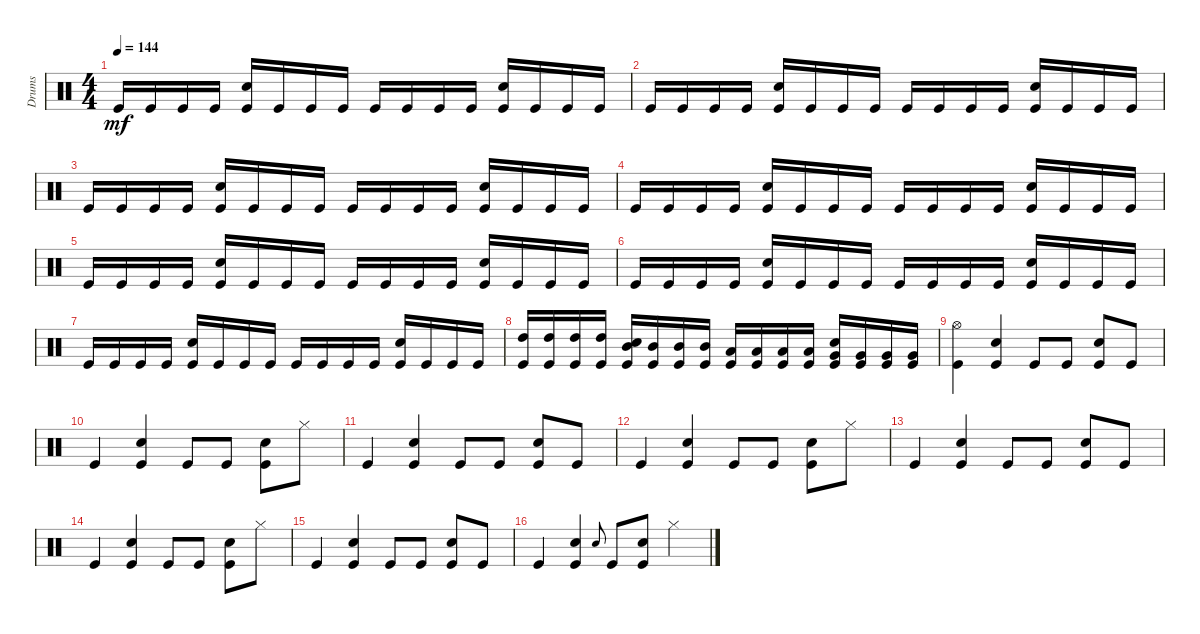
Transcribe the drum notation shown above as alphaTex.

\track ("Drums" "Drums") {instrument percussion}
\staff {score}
\articulation defaults
\ts (4 4)
\tempo 144
\clef neutral
\ks c "Kick (hit)".16{dy mf} "Kick (hit)".16 "Kick (hit)".16 "Kick (hit)".16
("Kick (hit)" "Snare (hit) 2").16 "Kick (hit)".16 "Kick (hit)".16 "Kick (hit)".16 "Kick (hit)".16 "Kick (hit)".16 "Kick (hit)".16 "Kick (hit)".16 ("Kick (hit)" "Snare (hit) 2").16 "Kick (hit)".16 "Kick (hit)".16 "Kick (hit)".16 |
"Kick (hit)".16 "Kick (hit)".16 "Kick (hit)".16 "Kick (hit)".16 ("Kick (hit)" "Snare (hit) 2").16 "Kick (hit)".16 "Kick (hit)".16 "Kick (hit)".16 "Kick (hit)".16 "Kick (hit)".16 "Kick (hit)".16 "Kick (hit)".16 ("Kick (hit)" "Snare (hit) 2").16 "Kick (hit)".16 "Kick (hit)".16 "Kick (hit)".16 |
"Kick (hit)".16 "Kick (hit)".16 "Kick (hit)".16 "Kick (hit)".16 ("Kick (hit)" "Snare (hit) 2").16 "Kick (hit)".16 "Kick (hit)".16 "Kick (hit)".16 "Kick (hit)".16 "Kick (hit)".16 "Kick (hit)".16 "Kick (hit)".16 ("Kick (hit)" "Snare (hit) 2").16 "Kick (hit)".16 "Kick (hit)".16 "Kick (hit)".16 |
"Kick (hit)".16 "Kick (hit)".16 "Kick (hit)".16 "Kick (hit)".16 ("Kick (hit)" "Snare (hit) 2").16 "Kick (hit)".16 "Kick (hit)".16 "Kick (hit)".16 "Kick (hit)".16 "Kick (hit)".16 "Kick (hit)".16 "Kick (hit)".16 ("Kick (hit)" "Snare (hit) 2").16 "Kick (hit)".16 "Kick (hit)".16 "Kick (hit)".16 |
"Kick (hit)".16 "Kick (hit)".16 "Kick (hit)".16 "Kick (hit)".16 ("Kick (hit)" "Snare (hit) 2").16 "Kick (hit)".16 "Kick (hit)".16 "Kick (hit)".16 "Kick (hit)".16 "Kick (hit)".16 "Kick (hit)".16 "Kick (hit)".16 ("Kick (hit)" "Snare (hit) 2").16 "Kick (hit)".16 "Kick (hit)".16 "Kick (hit)".16 |
"Kick (hit)".16 "Kick (hit)".16 "Kick (hit)".16 "Kick (hit)".16 ("Kick (hit)" "Snare (hit) 2").16 "Kick (hit)".16 "Kick (hit)".16 "Kick (hit)".16 "Kick (hit)".16 "Kick (hit)".16 "Kick (hit)".16 "Kick (hit)".16 ("Kick (hit)" "Snare (hit) 2").16 "Kick (hit)".16 "Kick (hit)".16 "Kick (hit)".16 |
"Kick (hit)".16 "Kick (hit)".16 "Kick (hit)".16 "Kick (hit)".16 ("Kick (hit)" "Snare (hit) 2").16 "Kick (hit)".16 "Kick (hit)".16 "Kick (hit)".16 "Kick (hit)".16 "Kick (hit)".16 "Kick (hit)".16 "Kick (hit)".16 ("Kick (hit)" "Snare (hit) 2").16 "Kick (hit)".16 "Kick (hit)".16 "Kick (hit)".16 |
("Kick (hit)" "High Tom (hit)").16 ("Kick (hit)" "High Tom (hit)").16 ("Kick (hit)" "High Tom (hit)").16 ("Kick (hit)" "High Tom (hit)").16 ("Kick (hit)" "Snare (hit) 2" "Mid Tom (hit)").16 ("Kick (hit)" "Mid Tom (hit)").16 ("Kick (hit)" "Mid Tom (hit)").16 ("Kick (hit)" "Mid Tom (hit)").16 ("Kick (hit)" "Low Tom (hit)").16 ("Kick (hit)" "Low Tom (hit)").16 ("Kick (hit)" "Low Tom (hit)").16 ("Kick (hit)" "Low Tom (hit)").16 ("Kick (hit)" "Snare (hit) 2" "Very Low Tom (hit)").16 ("Kick (hit)" "Very Low Tom (hit)").16 ("Kick (hit)" "Very Low Tom (hit)").16 ("Kick (hit)" "Very Low Tom (hit)").16 |
("Kick (hit)" "Hi-Hat (open)").4 ("Kick (hit)" "Snare (hit) 2").4 "Kick (hit)".8 "Kick (hit)".8 ("Kick (hit)" "Snare (hit) 2").8 "Kick (hit)".8 |
"Kick (hit)".4 ("Kick (hit)" "Snare (hit) 2").4 "Kick (hit)".8 "Kick (hit)".8 ("Kick (hit)" "Snare (hit) 2").8 "Hi-Hat (closed)".8 |
"Kick (hit)".4 ("Kick (hit)" "Snare (hit) 2").4 "Kick (hit)".8 "Kick (hit)".8 ("Kick (hit)" "Snare (hit) 2").8 "Kick (hit)".8 |
"Kick (hit)".4 ("Kick (hit)" "Snare (hit) 2").4 "Kick (hit)".8 "Kick (hit)".8 ("Kick (hit)" "Snare (hit) 2").8 "Hi-Hat (closed)".8 |
"Kick (hit)".4 ("Kick (hit)" "Snare (hit) 2").4 "Kick (hit)".8 "Kick (hit)".8 ("Kick (hit)" "Snare (hit) 2").8 "Kick (hit)".8 |
"Kick (hit)".4 ("Kick (hit)" "Snare (hit) 2").4 "Kick (hit)".8 "Kick (hit)".8 ("Kick (hit)" "Snare (hit) 2").8 "Hi-Hat (closed)".8 |
"Kick (hit)".4 ("Kick (hit)" "Snare (hit) 2").4 "Kick (hit)".8 "Kick (hit)".8 ("Kick (hit)" "Snare (hit) 2").8 "Kick (hit)".8 |
"Kick (hit)".4 ("Kick (hit)" "Snare (hit) 2").4 "Snare (hit)".8{gr onbeat} "Kick (hit)".8 ("Kick (hit)" "Snare (hit) 2").8 "Hi-Hat (closed)".4
